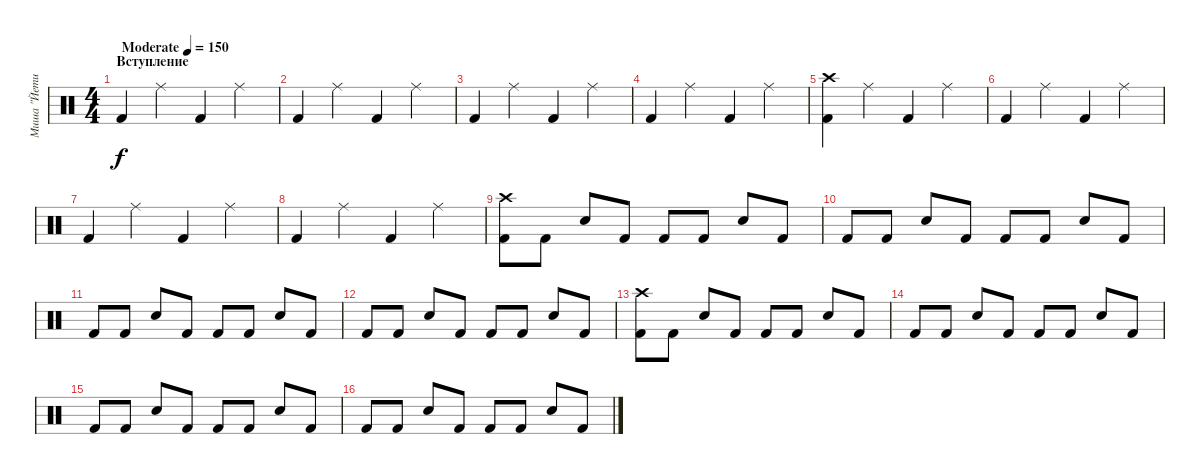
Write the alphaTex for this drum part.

\track ("Миша \"Йети\" Евсеев" "Миша \"Йети") {instrument percussion}
\staff {score}
\articulation defaults
\ts (4 4)
\section ("" "Вступление")
\tempo (150 "Moderate")
\clef neutral
\ks c "Kick (hit) 2".4{dy f} "Ride (middle)".4 "Kick (hit) 2".4 "Ride (middle)".4
|
"Kick (hit) 2".4 "Ride (middle)".4 "Kick (hit) 2".4 "Ride (middle)".4 |
"Kick (hit) 2".4 "Ride (middle)".4 "Kick (hit) 2".4 "Ride (middle)".4 |
"Kick (hit) 2".4 "Ride (middle)".4 "Kick (hit) 2".4 "Ride (middle)".4 |
("Kick (hit) 2" "Crash high (hit)").4 "Ride (middle)".4 "Kick (hit) 2".4 "Ride (middle)".4 |
"Kick (hit) 2".4 "Ride (middle)".4 "Kick (hit) 2".4 "Ride (middle)".4 |
"Kick (hit) 2".4 "Ride (middle)".4 "Kick (hit) 2".4 "Ride (middle)".4 |
"Kick (hit) 2".4 "Ride (middle)".4 "Kick (hit) 2".4 "Ride (middle)".4 |
("Kick (hit) 2" "Crash high (hit)").8 "Kick (hit) 2".8 "Snare (hit) 2".8 "Kick (hit) 2".8 "Kick (hit) 2".8 "Kick (hit) 2".8 "Snare (hit) 2".8 "Kick (hit) 2".8 |
"Kick (hit) 2".8 "Kick (hit) 2".8 "Snare (hit) 2".8 "Kick (hit) 2".8 "Kick (hit) 2".8 "Kick (hit) 2".8 "Snare (hit) 2".8 "Kick (hit) 2".8 |
"Kick (hit) 2".8 "Kick (hit) 2".8 "Snare (hit) 2".8 "Kick (hit) 2".8 "Kick (hit) 2".8 "Kick (hit) 2".8 "Snare (hit) 2".8 "Kick (hit) 2".8 |
"Kick (hit) 2".8 "Kick (hit) 2".8 "Snare (hit) 2".8 "Kick (hit) 2".8 "Kick (hit) 2".8 "Kick (hit) 2".8 "Snare (hit) 2".8 "Kick (hit) 2".8 |
("Kick (hit) 2" "Crash high (hit)").8 "Kick (hit) 2".8 "Snare (hit) 2".8 "Kick (hit) 2".8 "Kick (hit) 2".8 "Kick (hit) 2".8 "Snare (hit) 2".8 "Kick (hit) 2".8 |
"Kick (hit) 2".8 "Kick (hit) 2".8 "Snare (hit) 2".8 "Kick (hit) 2".8 "Kick (hit) 2".8 "Kick (hit) 2".8 "Snare (hit) 2".8 "Kick (hit) 2".8 |
"Kick (hit) 2".8 "Kick (hit) 2".8 "Snare (hit) 2".8 "Kick (hit) 2".8 "Kick (hit) 2".8 "Kick (hit) 2".8 "Snare (hit) 2".8 "Kick (hit) 2".8 |
"Kick (hit) 2".8 "Kick (hit) 2".8 "Snare (hit) 2".8 "Kick (hit) 2".8 "Kick (hit) 2".8 "Kick (hit) 2".8 "Snare (hit) 2".8 "Kick (hit) 2".8
